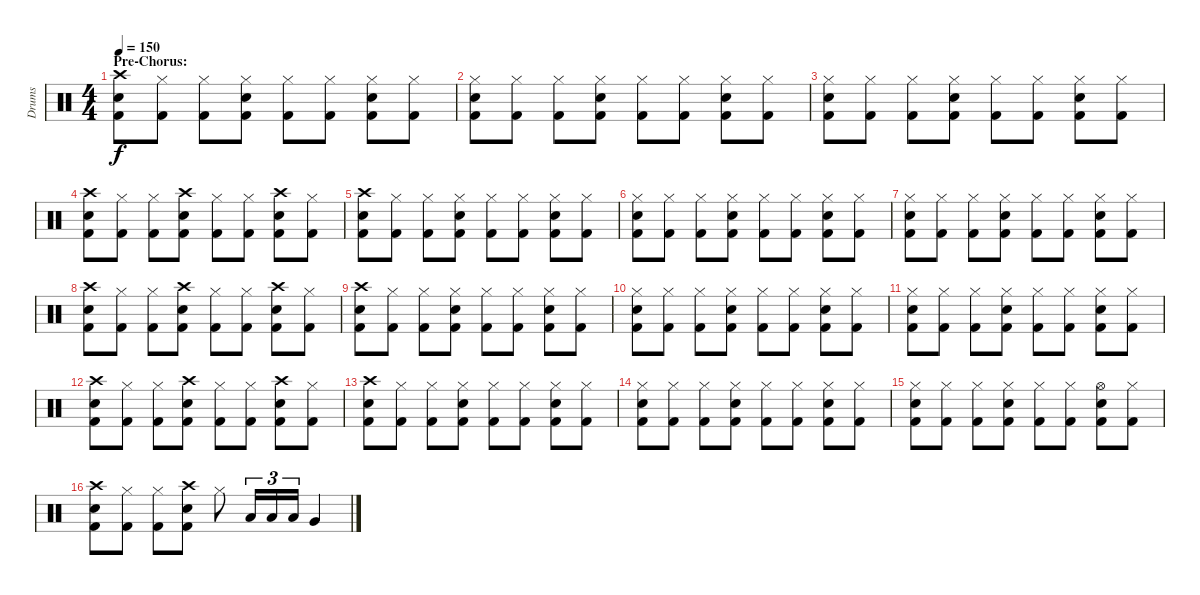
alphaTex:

\track ("Drums" "Drums") {instrument percussion}
\staff {score}
\articulation defaults
\ts (4 4)
\section ("" "Pre-Chorus:")
\tempo 150
\clef neutral
\ks c
("Crash high (hit)" "Electric Snare (hit)" "Kick (hit) 2").8{dy f} ("Hi-Hat (closed)" "Kick (hit) 2").8 ("Hi-Hat (closed)" "Kick (hit) 2").8 ("Hi-Hat (closed)" "Electric Snare (hit)" "Kick (hit) 2").8 ("Hi-Hat (closed)" "Kick (hit) 2").8 ("Hi-Hat (closed)" "Kick (hit) 2").8 ("Hi-Hat (closed)" "Electric Snare (hit)" "Kick (hit) 2").8 ("Hi-Hat (closed)" "Kick (hit) 2").8 |
("Hi-Hat (closed)" "Electric Snare (hit)" "Kick (hit) 2").8 ("Hi-Hat (closed)" "Kick (hit) 2").8 ("Hi-Hat (closed)" "Kick (hit) 2").8 ("Hi-Hat (closed)" "Electric Snare (hit)" "Kick (hit) 2").8 ("Hi-Hat (closed)" "Kick (hit) 2").8 ("Hi-Hat (closed)" "Kick (hit) 2").8 ("Hi-Hat (closed)" "Electric Snare (hit)" "Kick (hit) 2").8 ("Hi-Hat (closed)" "Kick (hit) 2").8 |
("Hi-Hat (closed)" "Electric Snare (hit)" "Kick (hit) 2").8 ("Hi-Hat (closed)" "Kick (hit) 2").8 ("Hi-Hat (closed)" "Kick (hit) 2").8 ("Hi-Hat (closed)" "Electric Snare (hit)" "Kick (hit) 2").8 ("Hi-Hat (closed)" "Kick (hit) 2").8 ("Hi-Hat (closed)" "Kick (hit) 2").8 ("Hi-Hat (closed)" "Electric Snare (hit)" "Kick (hit) 2").8 ("Hi-Hat (closed)" "Kick (hit) 2").8 |
("Crash high (hit)" "Electric Snare (hit)" "Kick (hit) 2").8 ("Hi-Hat (closed)" "Kick (hit) 2").8 ("Hi-Hat (closed)" "Kick (hit) 2").8 ("Crash high (hit)" "Electric Snare (hit)" "Kick (hit) 2").8 ("Hi-Hat (closed)" "Kick (hit) 2").8 ("Hi-Hat (closed)" "Kick (hit) 2").8 ("Crash high (hit)" "Electric Snare (hit)" "Kick (hit) 2").8 ("Hi-Hat (closed)" "Kick (hit) 2").8 |
("Crash high (hit)" "Electric Snare (hit)" "Kick (hit) 2").8 ("Hi-Hat (closed)" "Kick (hit) 2").8 ("Hi-Hat (closed)" "Kick (hit) 2").8 ("Hi-Hat (closed)" "Electric Snare (hit)" "Kick (hit) 2").8 ("Hi-Hat (closed)" "Kick (hit) 2").8 ("Hi-Hat (closed)" "Kick (hit) 2").8 ("Hi-Hat (closed)" "Electric Snare (hit)" "Kick (hit) 2").8 ("Hi-Hat (closed)" "Kick (hit) 2").8 |
("Hi-Hat (closed)" "Electric Snare (hit)" "Kick (hit) 2").8 ("Hi-Hat (closed)" "Kick (hit) 2").8 ("Hi-Hat (closed)" "Kick (hit) 2").8 ("Hi-Hat (closed)" "Electric Snare (hit)" "Kick (hit) 2").8 ("Hi-Hat (closed)" "Kick (hit) 2").8 ("Hi-Hat (closed)" "Kick (hit) 2").8 ("Hi-Hat (closed)" "Electric Snare (hit)" "Kick (hit) 2").8 ("Hi-Hat (closed)" "Kick (hit) 2").8 |
("Hi-Hat (closed)" "Electric Snare (hit)" "Kick (hit) 2").8 ("Hi-Hat (closed)" "Kick (hit) 2").8 ("Hi-Hat (closed)" "Kick (hit) 2").8 ("Hi-Hat (closed)" "Electric Snare (hit)" "Kick (hit) 2").8 ("Hi-Hat (closed)" "Kick (hit) 2").8 ("Hi-Hat (closed)" "Kick (hit) 2").8 ("Hi-Hat (closed)" "Electric Snare (hit)" "Kick (hit) 2").8 ("Hi-Hat (closed)" "Kick (hit) 2").8 |
("Crash high (hit)" "Electric Snare (hit)" "Kick (hit) 2").8 ("Hi-Hat (closed)" "Kick (hit) 2").8 ("Hi-Hat (closed)" "Kick (hit) 2").8 ("Crash high (hit)" "Electric Snare (hit)" "Kick (hit) 2").8 ("Hi-Hat (closed)" "Kick (hit) 2").8 ("Hi-Hat (closed)" "Kick (hit) 2").8 ("Crash high (hit)" "Electric Snare (hit)" "Kick (hit) 2").8 ("Hi-Hat (closed)" "Kick (hit) 2").8 |
("Crash high (hit)" "Electric Snare (hit)" "Kick (hit) 2").8 ("Hi-Hat (closed)" "Kick (hit) 2").8 ("Hi-Hat (closed)" "Kick (hit) 2").8 ("Hi-Hat (closed)" "Electric Snare (hit)" "Kick (hit) 2").8 ("Hi-Hat (closed)" "Kick (hit) 2").8 ("Hi-Hat (closed)" "Kick (hit) 2").8 ("Hi-Hat (closed)" "Electric Snare (hit)" "Kick (hit) 2").8 ("Hi-Hat (closed)" "Kick (hit) 2").8 |
("Hi-Hat (closed)" "Electric Snare (hit)" "Kick (hit) 2").8 ("Hi-Hat (closed)" "Kick (hit) 2").8 ("Hi-Hat (closed)" "Kick (hit) 2").8 ("Hi-Hat (closed)" "Electric Snare (hit)" "Kick (hit) 2").8 ("Hi-Hat (closed)" "Kick (hit) 2").8 ("Hi-Hat (closed)" "Kick (hit) 2").8 ("Hi-Hat (closed)" "Electric Snare (hit)" "Kick (hit) 2").8 ("Hi-Hat (closed)" "Kick (hit) 2").8 |
("Hi-Hat (closed)" "Electric Snare (hit)" "Kick (hit) 2").8 ("Hi-Hat (closed)" "Kick (hit) 2").8 ("Hi-Hat (closed)" "Kick (hit) 2").8 ("Hi-Hat (closed)" "Electric Snare (hit)" "Kick (hit) 2").8 ("Hi-Hat (closed)" "Kick (hit) 2").8 ("Hi-Hat (closed)" "Kick (hit) 2").8 ("Hi-Hat (closed)" "Electric Snare (hit)" "Kick (hit) 2").8 ("Hi-Hat (closed)" "Kick (hit) 2").8 |
("Crash high (hit)" "Electric Snare (hit)" "Kick (hit) 2").8 ("Hi-Hat (closed)" "Kick (hit) 2").8 ("Hi-Hat (closed)" "Kick (hit) 2").8 ("Crash high (hit)" "Electric Snare (hit)" "Kick (hit) 2").8 ("Hi-Hat (closed)" "Kick (hit) 2").8 ("Hi-Hat (closed)" "Kick (hit) 2").8 ("Crash high (hit)" "Electric Snare (hit)" "Kick (hit) 2").8 ("Hi-Hat (closed)" "Kick (hit) 2").8 |
("Crash high (hit)" "Electric Snare (hit)" "Kick (hit) 2").8 ("Hi-Hat (closed)" "Kick (hit) 2").8 ("Hi-Hat (closed)" "Kick (hit) 2").8 ("Hi-Hat (closed)" "Electric Snare (hit)" "Kick (hit) 2").8 ("Hi-Hat (closed)" "Kick (hit) 2").8 ("Hi-Hat (closed)" "Kick (hit) 2").8 ("Hi-Hat (closed)" "Electric Snare (hit)" "Kick (hit) 2").8 ("Hi-Hat (closed)" "Kick (hit) 2").8 |
("Hi-Hat (closed)" "Electric Snare (hit)" "Kick (hit) 2").8 ("Hi-Hat (closed)" "Kick (hit) 2").8 ("Hi-Hat (closed)" "Kick (hit) 2").8 ("Hi-Hat (closed)" "Electric Snare (hit)" "Kick (hit) 2").8 ("Hi-Hat (closed)" "Kick (hit) 2").8 ("Hi-Hat (closed)" "Kick (hit) 2").8 ("Hi-Hat (closed)" "Electric Snare (hit)" "Kick (hit) 2").8 ("Hi-Hat (closed)" "Kick (hit) 2").8 |
("Hi-Hat (closed)" "Electric Snare (hit)" "Kick (hit) 2").8 ("Hi-Hat (closed)" "Kick (hit) 2").8 ("Hi-Hat (closed)" "Kick (hit) 2").8 ("Hi-Hat (closed)" "Electric Snare (hit)" "Kick (hit) 2").8 ("Hi-Hat (closed)" "Kick (hit) 2").8 ("Hi-Hat (closed)" "Kick (hit) 2").8 ("Hi-Hat (open)" "Electric Snare (hit)" "Kick (hit) 2").8 ("Hi-Hat (closed)" "Kick (hit) 2").8 |
("Crash high (hit)" "Electric Snare (hit)" "Kick (hit) 2").8 ("Hi-Hat (closed)" "Kick (hit) 2").8 ("Hi-Hat (closed)" "Kick (hit) 2").8 ("Crash high (hit)" "Electric Snare (hit)" "Kick (hit) 2").8 "Hi-Hat (closed)".8 "Low Tom (hit)".16{tu (3 2)} "Low Tom (hit)".16{tu (3 2)} "Low Tom (hit)".16{tu (3 2)} "Very Low Tom (hit)".4
